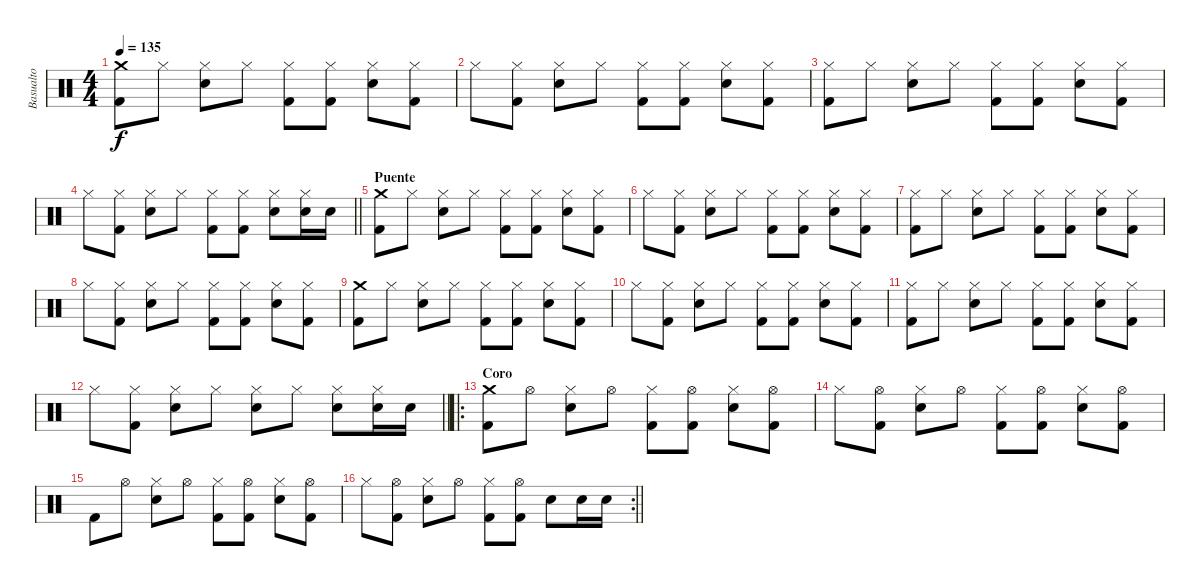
\track ("Basualto" "Basualto") {instrument percussion}
\staff {score}
\articulation defaults
\ts (4 4)
\tempo 135
\clef neutral
\ks c
("Crash medium (hit)" "Kick (hit) 2").8{dy f} "Hi-Hat (closed)".8 ("Hi-Hat (closed)" "Snare (hit) 2").8 "Hi-Hat (closed)".8 ("Hi-Hat (closed)" "Kick (hit) 2").8 ("Hi-Hat (closed)" "Kick (hit) 2").8 ("Hi-Hat (closed)" "Snare (hit) 2").8 ("Hi-Hat (closed)" "Kick (hit) 2").8 |
"Hi-Hat (closed)".8 ("Hi-Hat (closed)" "Kick (hit) 2").8 ("Hi-Hat (closed)" "Snare (hit) 2").8 "Hi-Hat (closed)".8 ("Hi-Hat (closed)" "Kick (hit) 2").8 ("Hi-Hat (closed)" "Kick (hit) 2").8 ("Hi-Hat (closed)" "Snare (hit) 2").8 ("Hi-Hat (closed)" "Kick (hit) 2").8 |
("Hi-Hat (closed)" "Kick (hit) 2").8 "Hi-Hat (closed)".8 ("Hi-Hat (closed)" "Snare (hit) 2").8 "Hi-Hat (closed)".8 ("Hi-Hat (closed)" "Kick (hit) 2").8 ("Hi-Hat (closed)" "Kick (hit) 2").8 ("Hi-Hat (closed)" "Snare (hit) 2").8 ("Hi-Hat (closed)" "Kick (hit) 2").8 |
\barLineRight lightlight "Hi-Hat (closed)".8
("Hi-Hat (closed)" "Kick (hit) 2").8 ("Hi-Hat (closed)" "Snare (hit) 2").8 "Hi-Hat (closed)".8 ("Hi-Hat (closed)" "Kick (hit) 2").8 ("Hi-Hat (closed)" "Kick (hit) 2").8 ("Hi-Hat (closed)" "Snare (hit) 2").8 ("Hi-Hat (closed)" "Snare (hit) 2").16 "Snare (hit) 2".16 |
\section ("" "Puente")
("Crash medium (hit)" "Kick (hit) 2").8 "Hi-Hat (closed)".8 ("Hi-Hat (closed)" "Snare (hit) 2").8 "Hi-Hat (closed)".8 ("Hi-Hat (closed)" "Kick (hit) 2").8 ("Hi-Hat (closed)" "Kick (hit) 2").8 ("Hi-Hat (closed)" "Snare (hit) 2").8 ("Hi-Hat (closed)" "Kick (hit) 2").8 |
"Hi-Hat (closed)".8 ("Hi-Hat (closed)" "Kick (hit) 2").8 ("Hi-Hat (closed)" "Snare (hit) 2").8 "Hi-Hat (closed)".8 ("Hi-Hat (closed)" "Kick (hit) 2").8 ("Hi-Hat (closed)" "Kick (hit) 2").8 ("Hi-Hat (closed)" "Snare (hit) 2").8 ("Hi-Hat (closed)" "Kick (hit) 2").8 |
("Hi-Hat (closed)" "Kick (hit) 2").8 "Hi-Hat (closed)".8 ("Hi-Hat (closed)" "Snare (hit) 2").8 "Hi-Hat (closed)".8 ("Hi-Hat (closed)" "Kick (hit) 2").8 ("Hi-Hat (closed)" "Kick (hit) 2").8 ("Hi-Hat (closed)" "Snare (hit) 2").8 ("Hi-Hat (closed)" "Kick (hit) 2").8 |
"Hi-Hat (closed)".8 ("Hi-Hat (closed)" "Kick (hit) 2").8 ("Hi-Hat (closed)" "Snare (hit) 2").8 "Hi-Hat (closed)".8 ("Hi-Hat (closed)" "Kick (hit) 2").8 ("Hi-Hat (closed)" "Kick (hit) 2").8 ("Hi-Hat (closed)" "Snare (hit) 2").8 ("Hi-Hat (closed)" "Kick (hit) 2").8 |
("Crash medium (hit)" "Kick (hit) 2").8 "Hi-Hat (closed)".8 ("Hi-Hat (closed)" "Snare (hit) 2").8 "Hi-Hat (closed)".8 ("Hi-Hat (closed)" "Kick (hit) 2").8 ("Hi-Hat (closed)" "Kick (hit) 2").8 ("Hi-Hat (closed)" "Snare (hit) 2").8 ("Hi-Hat (closed)" "Kick (hit) 2").8 |
"Hi-Hat (closed)".8 ("Hi-Hat (closed)" "Kick (hit) 2").8 ("Hi-Hat (closed)" "Snare (hit) 2").8 "Hi-Hat (closed)".8 ("Hi-Hat (closed)" "Kick (hit) 2").8 ("Hi-Hat (closed)" "Kick (hit) 2").8 ("Hi-Hat (closed)" "Snare (hit) 2").8 ("Hi-Hat (closed)" "Kick (hit) 2").8 |
("Hi-Hat (closed)" "Kick (hit) 2").8 "Hi-Hat (closed)".8 ("Hi-Hat (closed)" "Snare (hit) 2").8 "Hi-Hat (closed)".8 ("Hi-Hat (closed)" "Kick (hit) 2").8 ("Hi-Hat (closed)" "Kick (hit) 2").8 ("Hi-Hat (closed)" "Snare (hit) 2").8 ("Hi-Hat (closed)" "Kick (hit) 2").8 |
\barLineRight lightlight "Hi-Hat (closed)".8
("Hi-Hat (closed)" "Kick (hit) 2").8 ("Hi-Hat (closed)" "Snare (hit) 2").8 "Hi-Hat (closed)".8 ("Hi-Hat (closed)" "Snare (hit) 2").8 "Hi-Hat (closed)".8 ("Hi-Hat (closed)" "Snare (hit) 2").8 ("Hi-Hat (closed)" "Snare (hit) 2").16 "Snare (hit) 2".16 |
\ro
\section ("" "Coro")
("Crash medium (hit)" "Kick (hit) 2").8 "Hi-Hat (open)".8 ("Hi-Hat (closed)" "Snare (hit) 2").8 "Hi-Hat (open)".8 ("Hi-Hat (closed)" "Kick (hit) 2").8 ("Hi-Hat (open)" "Kick (hit) 2").8 ("Hi-Hat (closed)" "Snare (hit) 2").8 ("Hi-Hat (open)" "Kick (hit) 2").8 |
"Hi-Hat (closed)".8 ("Hi-Hat (open)" "Kick (hit) 2").8 ("Hi-Hat (closed)" "Snare (hit) 2").8 "Hi-Hat (open)".8 ("Hi-Hat (closed)" "Kick (hit) 2").8 ("Hi-Hat (open)" "Kick (hit) 2").8 ("Hi-Hat (closed)" "Snare (hit) 2").8 ("Hi-Hat (open)" "Kick (hit) 2").8 |
"Kick (hit) 2".8 "Hi-Hat (open)".8 ("Hi-Hat (closed)" "Snare (hit) 2").8 "Hi-Hat (open)".8 ("Hi-Hat (closed)" "Kick (hit) 2").8 ("Hi-Hat (open)" "Kick (hit) 2").8 ("Hi-Hat (closed)" "Snare (hit) 2").8 ("Hi-Hat (open)" "Kick (hit) 2").8 |
\rc 2
\barLineRight lightlight "Hi-Hat (closed)".8
("Hi-Hat (open)" "Kick (hit) 2").8 ("Hi-Hat (closed)" "Snare (hit) 2").8 "Hi-Hat (open)".8 ("Hi-Hat (closed)" "Kick (hit) 2").8 ("Hi-Hat (open)" "Kick (hit) 2").8 "Snare (hit) 2".8 "Snare (hit) 2".16 "Snare (hit) 2".16
